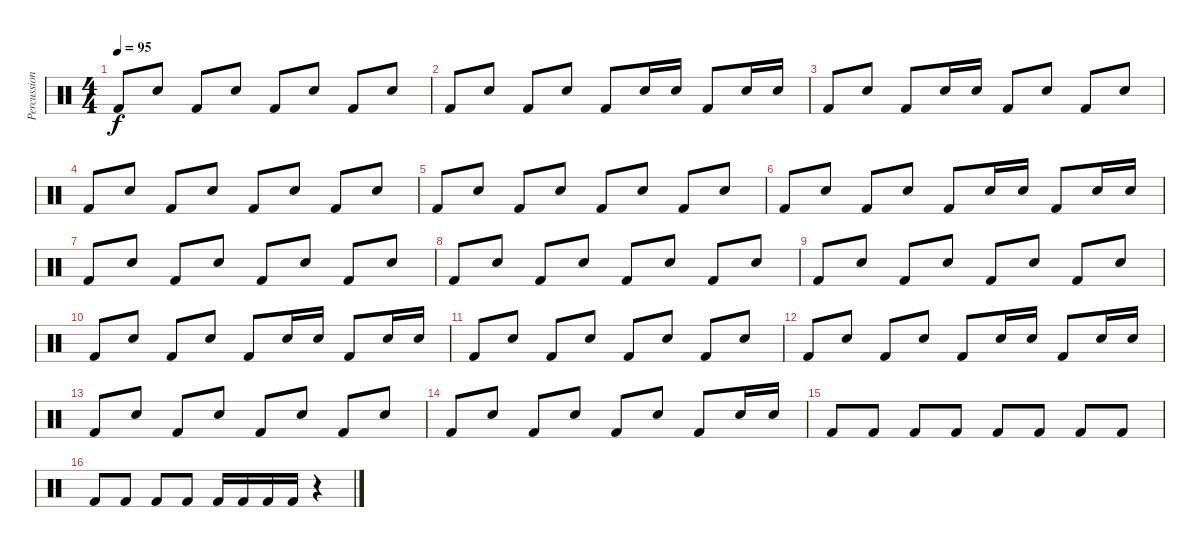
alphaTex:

\track ("Percussions" "Percussion") {instrument percussion}
\staff {score}
\articulation defaults
\ts (4 4)
\tempo 95
\clef neutral
\ks c "Kick (hit) 2".8{dy f} "Snare (hit) 2".8 "Kick (hit) 2".8 "Snare (hit) 2".8 "Kick (hit) 2".8 "Snare (hit) 2".8 "Kick (hit) 2".8 "Snare (hit) 2".8
|
"Kick (hit) 2".8 "Snare (hit) 2".8 "Kick (hit) 2".8 "Snare (hit) 2".8 "Kick (hit) 2".8 "Snare (hit) 2".16 "Snare (hit) 2".16 "Kick (hit) 2".8 "Snare (hit) 2".16 "Snare (hit) 2".16 |
"Kick (hit) 2".8 "Snare (hit) 2".8 "Kick (hit) 2".8 "Snare (hit) 2".16 "Snare (hit) 2".16 "Kick (hit) 2".8 "Snare (hit) 2".8 "Kick (hit) 2".8 "Snare (hit) 2".8 |
"Kick (hit) 2".8 "Snare (hit) 2".8 "Kick (hit) 2".8 "Snare (hit) 2".8 "Kick (hit) 2".8 "Snare (hit) 2".8 "Kick (hit) 2".8 "Snare (hit) 2".8 |
"Kick (hit) 2".8 "Snare (hit) 2".8 "Kick (hit) 2".8 "Snare (hit) 2".8 "Kick (hit) 2".8 "Snare (hit) 2".8 "Kick (hit) 2".8 "Snare (hit) 2".8 |
"Kick (hit) 2".8 "Snare (hit) 2".8 "Kick (hit) 2".8 "Snare (hit) 2".8 "Kick (hit) 2".8 "Snare (hit) 2".16 "Snare (hit) 2".16 "Kick (hit) 2".8 "Snare (hit) 2".16 "Snare (hit) 2".16 |
"Kick (hit) 2".8 "Snare (hit) 2".8 "Kick (hit) 2".8 "Snare (hit) 2".8 "Kick (hit) 2".8 "Snare (hit) 2".8 "Kick (hit) 2".8 "Snare (hit) 2".8 |
"Kick (hit) 2".8 "Snare (hit) 2".8 "Kick (hit) 2".8 "Snare (hit) 2".8 "Kick (hit) 2".8 "Snare (hit) 2".8 "Kick (hit) 2".8 "Snare (hit) 2".8 |
"Kick (hit) 2".8 "Snare (hit) 2".8 "Kick (hit) 2".8 "Snare (hit) 2".8 "Kick (hit) 2".8 "Snare (hit) 2".8 "Kick (hit) 2".8 "Snare (hit) 2".8 |
"Kick (hit) 2".8 "Snare (hit) 2".8 "Kick (hit) 2".8 "Snare (hit) 2".8 "Kick (hit) 2".8 "Snare (hit) 2".16 "Snare (hit) 2".16 "Kick (hit) 2".8 "Snare (hit) 2".16 "Snare (hit) 2".16 |
"Kick (hit) 2".8 "Snare (hit) 2".8 "Kick (hit) 2".8 "Snare (hit) 2".8 "Kick (hit) 2".8 "Snare (hit) 2".8 "Kick (hit) 2".8 "Snare (hit) 2".8 |
"Kick (hit) 2".8 "Snare (hit) 2".8 "Kick (hit) 2".8 "Snare (hit) 2".8 "Kick (hit) 2".8 "Snare (hit) 2".16 "Snare (hit) 2".16 "Kick (hit) 2".8 "Snare (hit) 2".16 "Snare (hit) 2".16 |
"Kick (hit) 2".8 "Snare (hit) 2".8 "Kick (hit) 2".8 "Snare (hit) 2".8 "Kick (hit) 2".8 "Snare (hit) 2".8 "Kick (hit) 2".8 "Snare (hit) 2".8 |
"Kick (hit) 2".8 "Snare (hit) 2".8 "Kick (hit) 2".8 "Snare (hit) 2".8 "Kick (hit) 2".8 "Snare (hit) 2".8 "Kick (hit) 2".8 "Snare (hit) 2".16 "Snare (hit) 2".16 |
"Kick (hit) 2".8 "Kick (hit) 2".8 "Kick (hit) 2".8 "Kick (hit) 2".8 "Kick (hit) 2".8 "Kick (hit) 2".8 "Kick (hit) 2".8 "Kick (hit) 2".8 |
"Kick (hit) 2".8 "Kick (hit) 2".8 "Kick (hit) 2".8 "Kick (hit) 2".8 "Kick (hit) 2".16 "Kick (hit) 2".16 "Kick (hit) 2".16 "Kick (hit) 2".16 r.4
